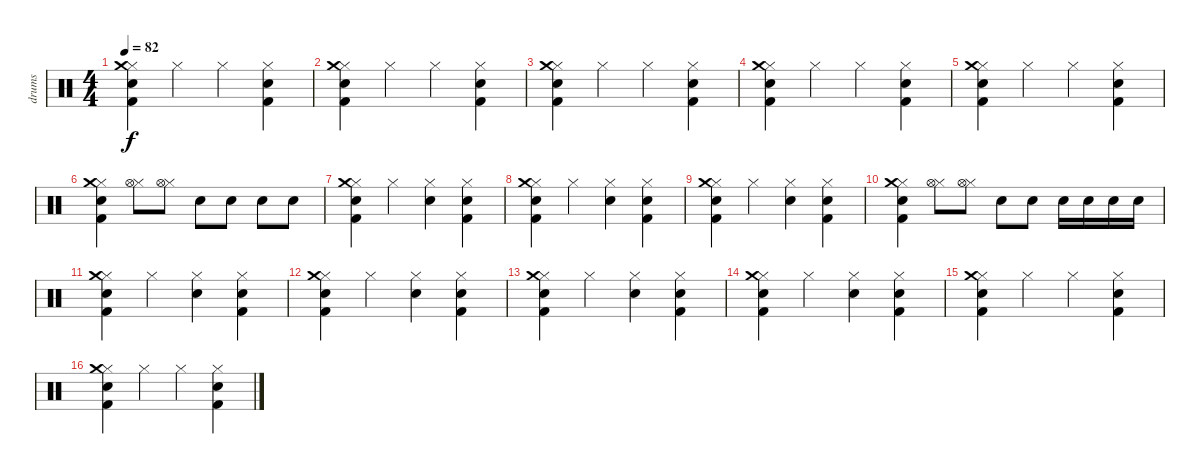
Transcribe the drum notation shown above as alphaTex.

\track ("drums" "drums") {instrument percussion}
\staff {score}
\articulation defaults
\ts (4 4)
\tempo 82
\clef neutral
\ks c
("Hi-Hat (closed)" "Snare (hit) 2" "Kick (hit) 2" "Crash medium (hit)").4{dy f} "Hi-Hat (closed)".4 "Hi-Hat (closed)".4 ("Hi-Hat (closed)" "Snare (hit) 2" "Kick (hit) 2").4 |
("Hi-Hat (closed)" "Snare (hit) 2" "Kick (hit) 2" "Crash medium (hit)").4 "Hi-Hat (closed)".4 "Hi-Hat (closed)".4 ("Hi-Hat (closed)" "Snare (hit) 2" "Kick (hit) 2").4 |
("Hi-Hat (closed)" "Snare (hit) 2" "Kick (hit) 2" "Crash medium (hit)").4 "Hi-Hat (closed)".4 "Hi-Hat (closed)".4 ("Hi-Hat (closed)" "Snare (hit) 2" "Kick (hit) 2").4 |
("Hi-Hat (closed)" "Snare (hit) 2" "Kick (hit) 2" "Crash medium (hit)").4 "Hi-Hat (closed)".4 "Hi-Hat (closed)".4 ("Hi-Hat (closed)" "Snare (hit) 2" "Kick (hit) 2").4 |
("Hi-Hat (closed)" "Snare (hit) 2" "Kick (hit) 2" "Crash medium (hit)").4 "Hi-Hat (closed)".4 "Hi-Hat (closed)".4 ("Hi-Hat (closed)" "Snare (hit) 2" "Kick (hit) 2").4 |
("Hi-Hat (closed)" "Snare (hit) 2" "Kick (hit) 2" "Crash medium (hit)").4 ("Hi-Hat (closed)" "Hi-Hat (open)").8 ("Hi-Hat (closed)" "Hi-Hat (open)").8 "Electric Snare (hit)".8 "Electric Snare (hit)".8 "Snare (hit) 2".8 "Snare (hit) 2".8 |
("Hi-Hat (closed)" "Snare (hit) 2" "Kick (hit) 2" "Crash medium (hit)").4 "Hi-Hat (closed)".4 ("Hi-Hat (closed)" "Hand Clap (hit)").4 ("Hi-Hat (closed)" "Snare (hit) 2" "Kick (hit) 2").4 |
("Hi-Hat (closed)" "Snare (hit) 2" "Kick (hit) 2" "Crash medium (hit)").4 "Hi-Hat (closed)".4 ("Hi-Hat (closed)" "Hand Clap (hit)").4 ("Hi-Hat (closed)" "Snare (hit) 2" "Kick (hit) 2").4 |
("Hi-Hat (closed)" "Snare (hit) 2" "Kick (hit) 2" "Crash medium (hit)").4 "Hi-Hat (closed)".4 ("Hi-Hat (closed)" "Hand Clap (hit)").4 ("Hi-Hat (closed)" "Snare (hit) 2" "Kick (hit) 2").4 |
("Hi-Hat (closed)" "Snare (hit) 2" "Kick (hit) 2" "Crash medium (hit)").4 ("Hi-Hat (closed)" "Hi-Hat (open)").8 ("Hi-Hat (closed)" "Hi-Hat (open)").8 "Electric Snare (hit)".8 "Electric Snare (hit)".8 "Snare (hit) 2".16 "Snare (hit) 2".16 "Snare (hit) 2".16 "Snare (hit) 2".16 |
("Hi-Hat (closed)" "Snare (hit) 2" "Kick (hit) 2" "Crash medium (hit)").4 "Hi-Hat (closed)".4 ("Hi-Hat (closed)" "Hand Clap (hit)").4 ("Hi-Hat (closed)" "Snare (hit) 2" "Kick (hit) 2").4 |
("Hi-Hat (closed)" "Snare (hit) 2" "Kick (hit) 2" "Crash medium (hit)").4 "Hi-Hat (closed)".4 ("Hi-Hat (closed)" "Hand Clap (hit)").4 ("Hi-Hat (closed)" "Snare (hit) 2" "Kick (hit) 2").4 |
("Hi-Hat (closed)" "Snare (hit) 2" "Kick (hit) 2" "Crash medium (hit)").4 "Hi-Hat (closed)".4 ("Hi-Hat (closed)" "Hand Clap (hit)").4 ("Hi-Hat (closed)" "Snare (hit) 2" "Kick (hit) 2").4 |
("Hi-Hat (closed)" "Snare (hit) 2" "Kick (hit) 2" "Crash medium (hit)").4 "Hi-Hat (closed)".4 ("Hi-Hat (closed)" "Hand Clap (hit)").4 ("Hi-Hat (closed)" "Snare (hit) 2" "Kick (hit) 2").4 |
("Hi-Hat (closed)" "Snare (hit) 2" "Kick (hit) 2" "Crash medium (hit)").4 "Hi-Hat (closed)".4 "Hi-Hat (closed)".4 ("Hi-Hat (closed)" "Snare (hit) 2" "Kick (hit) 2").4 |
("Hi-Hat (closed)" "Snare (hit) 2" "Kick (hit) 2" "Crash medium (hit)").4 "Hi-Hat (closed)".4 "Hi-Hat (closed)".4 ("Hi-Hat (closed)" "Snare (hit) 2" "Kick (hit) 2").4
